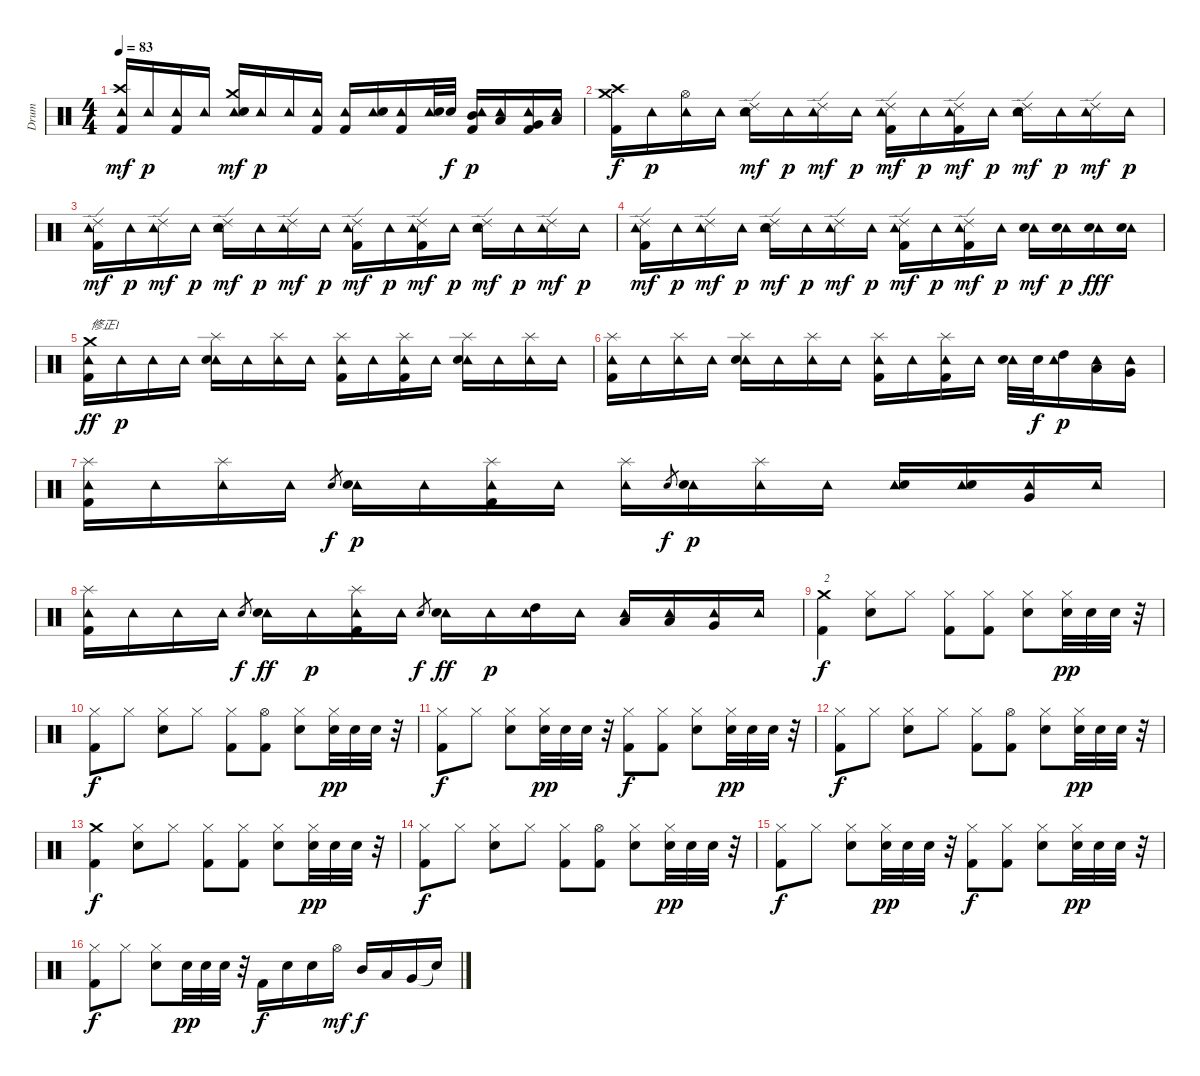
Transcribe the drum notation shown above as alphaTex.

\track ("Drum" "Drum") {instrument percussion}
\staff {score}
\articulation defaults
\ts (4 4)
\tempo 83
\clef neutral
\ks c
("Tambourine (hit)" "Crash high (hit)" "Kick (hit) 2").16{dy mf} "Tambourine (hit)".16{dy p} ("Tambourine (hit)" "Kick (hit) 2").16 "Tambourine (hit)".16 ("Tambourine (hit)" "Crash medium (hit)" "Electric Snare (hit)").16{dy mf} "Tambourine (hit)".16{dy p} "Tambourine (hit)".16 ("Tambourine (hit)" "Kick (hit) 2").16 ("Tambourine (hit)" "Kick (hit) 2").16 ("Tambourine (hit)" "Electric Snare (hit)").16 ("Tambourine (hit)" "Kick (hit) 2").16 ("Tambourine (hit)" "Electric Snare (hit)").32 "Electric Snare (hit)".32{dy f} ("Tambourine (hit)" "Mid Tom (hit)" "Kick (hit) 2").16{dy p} ("Tambourine (hit)" "Low Tom (hit)").16 ("Tambourine (hit)" "Very Low Tom (hit)" "Kick (hit) 2").16 ("Tambourine (hit)" "Low Floor Tom (hit)").16 |
("Crash high (hit)" "Crash medium (hit)" "Kick (hit) 2").16{dy f} "Tambourine (hit)".16{dy p} ("Tambourine (hit)" "Hi-Hat (open)").16 "Tambourine (hit)".16 ("Tambourine (hit)" "Ride (edge) 2" "Electric Snare (hit)").16{dy mf} "Tambourine (hit)".16{dy p} ("Tambourine (hit)" "Ride (edge) 2").16{dy mf} "Tambourine (hit)".16{dy p} ("Tambourine (hit)" "Ride (edge) 2" "Kick (hit) 2").16{dy mf} "Tambourine (hit)".16{dy p} ("Tambourine (hit)" "Ride (edge) 2" "Kick (hit) 2").16{dy mf} "Tambourine (hit)".16{dy p} ("Tambourine (hit)" "Ride (edge) 2" "Electric Snare (hit)").16{dy mf} "Tambourine (hit)".16{dy p} ("Tambourine (hit)" "Ride (edge) 2").16{dy mf} "Tambourine (hit)".16{dy p} |
("Tambourine (hit)" "Ride (edge) 2" "Kick (hit) 2").16{dy mf} "Tambourine (hit)".16{dy p} ("Tambourine (hit)" "Ride (edge) 2").16{dy mf} "Tambourine (hit)".16{dy p} ("Tambourine (hit)" "Ride (edge) 2" "Electric Snare (hit)").16{dy mf} "Tambourine (hit)".16{dy p} ("Tambourine (hit)" "Ride (edge) 2").16{dy mf} "Tambourine (hit)".16{dy p} ("Tambourine (hit)" "Ride (edge) 2" "Kick (hit) 2").16{dy mf} "Tambourine (hit)".16{dy p} ("Tambourine (hit)" "Ride (edge) 2" "Kick (hit) 2").16{dy mf} "Tambourine (hit)".16{dy p} ("Tambourine (hit)" "Ride (edge) 2" "Electric Snare (hit)").16{dy mf} "Tambourine (hit)".16{dy p} ("Tambourine (hit)" "Ride (edge) 2").16{dy mf} "Tambourine (hit)".16{dy p} |
("Tambourine (hit)" "Ride (edge) 2" "Kick (hit) 2").16{dy mf} "Tambourine (hit)".16{dy p} ("Tambourine (hit)" "Ride (edge) 2").16{dy mf} "Tambourine (hit)".16{dy p} ("Tambourine (hit)" "Ride (edge) 2" "Electric Snare (hit)").16{dy mf} "Tambourine (hit)".16{dy p} ("Tambourine (hit)" "Ride (edge) 2").16{dy mf} "Tambourine (hit)".16{dy p} ("Tambourine (hit)" "Ride (edge) 2" "Kick (hit) 2").16{dy mf} "Tambourine (hit)".16{dy p} ("Tambourine (hit)" "Ride (edge) 2" "Kick (hit) 2").16{dy mf} "Tambourine (hit)".16{dy p} ("Tambourine (hit)" "Electric Snare (hit)").16{dy mf} ("Tambourine (hit)" "Electric Snare (hit)").16{dy p} ("Tambourine (hit)" "Electric Snare (hit)").16{dy fff} ("Tambourine (hit)" "Electric Snare (hit)").16 |
("Tambourine (hit)" "Crash medium (hit)" "Kick (hit) 2").16{txt "修正1" dy ff} "Tambourine (hit)".16{dy p} "Tambourine (hit)".16 "Tambourine (hit)".16 ("Tambourine (hit)" "Splash (hit)" "Electric Snare (hit)").16 "Tambourine (hit)".16 ("Tambourine (hit)" "Splash (hit)").16 "Tambourine (hit)".16 ("Tambourine (hit)" "Splash (hit)" "Kick (hit) 2").16 "Tambourine (hit)".16 ("Tambourine (hit)" "Splash (hit)" "Kick (hit) 2").16 "Tambourine (hit)".16 ("Tambourine (hit)" "Splash (hit)" "Electric Snare (hit)").16 "Tambourine (hit)".16 ("Tambourine (hit)" "Splash (hit)").16 "Tambourine (hit)".16 |
("Tambourine (hit)" "Splash (hit)" "Kick (hit) 2").16 "Tambourine (hit)".16 ("Tambourine (hit)" "Splash (hit)").16 "Tambourine (hit)".16 ("Tambourine (hit)" "Splash (hit)" "Electric Snare (hit)").16 "Tambourine (hit)".16 ("Tambourine (hit)" "Splash (hit)").16 "Tambourine (hit)".16 ("Tambourine (hit)" "Splash (hit)" "Kick (hit) 2").16 "Tambourine (hit)".16 ("Tambourine (hit)" "Splash (hit)" "Kick (hit) 2").16 "Tambourine (hit)".16 ("Tambourine (hit)" "Electric Snare (hit)").32 "Electric Snare (hit)".32{dy f} ("Tambourine (hit)" "High Tom (hit)").16{dy p} ("Tambourine (hit)" "Low Tom (hit)").16 ("Tambourine (hit)" "Very Low Tom (hit)").16 |
("Tambourine (hit)" "Splash (hit)" "Kick (hit) 2").16 "Tambourine (hit)".16 ("Tambourine (hit)" "Splash (hit)").16 "Tambourine (hit)".16 "Electric Snare (hit)".8{gr dy f} ("Tambourine (hit)" "Electric Snare (hit)").16{dy p} "Tambourine (hit)".16 ("Tambourine (hit)" "Splash (hit)" "Kick (hit) 2").16 "Tambourine (hit)".16 ("Tambourine (hit)" "Splash (hit)").16 "Electric Snare (hit)".8{gr dy f} ("Tambourine (hit)" "Electric Snare (hit)").16{dy p} ("Tambourine (hit)" "Splash (hit)").16 "Tambourine (hit)".16 ("Tambourine (hit)" "Electric Snare (hit)").16 ("Tambourine (hit)" "Electric Snare (hit)").16 ("Tambourine (hit)" "Very Low Tom (hit)").16 "Tambourine (hit)".16 |
("Tambourine (hit)" "Splash (hit)" "Kick (hit) 2").16 "Tambourine (hit)".16 "Tambourine (hit)".16 "Tambourine (hit)".16 "Electric Snare (hit)".8{gr dy f} ("Tambourine (hit)" "Electric Snare (hit)").16{dy ff} "Tambourine (hit)".16{dy p} ("Tambourine (hit)" "Splash (hit)" "Kick (hit) 2").16 "Tambourine (hit)".16 "Electric Snare (hit)".8{gr dy f} ("Tambourine (hit)" "Electric Snare (hit)").16{dy ff} "Tambourine (hit)".16{dy p} ("Tambourine (hit)" "High Tom (hit)").16 "Tambourine (hit)".16 ("Tambourine (hit)" "Low Tom (hit)").16 ("Tambourine (hit)" "Low Tom (hit)").16 ("Tambourine (hit)" "Very Low Tom (hit)").16 "Tambourine (hit)".16 |
("Crash medium (hit)" "Kick (hit) 2").4{txt "2" dy f} ("Hi-Hat (closed)" "Electric Snare (hit)").8 "Hi-Hat (closed)".8 ("Hi-Hat (closed)" "Kick (hit) 2").8 ("Hi-Hat (closed)" "Kick (hit) 2").8 ("Hi-Hat (closed)" "Electric Snare (hit)").8 ("Hi-Hat (closed)" "Snare (hit) 2").32{dy pp} "Snare (hit) 2".32 "Snare (hit) 2".32 r.32 |
("Hi-Hat (closed)" "Kick (hit) 2").8{dy f} "Hi-Hat (closed)".8 ("Hi-Hat (closed)" "Electric Snare (hit)").8 "Hi-Hat (closed)".8 ("Hi-Hat (closed)" "Kick (hit) 2").8 ("Hi-Hat (open)" "Kick (hit) 2").8 ("Hi-Hat (closed)" "Electric Snare (hit)").8 ("Hi-Hat (closed)" "Snare (hit) 2").32{dy pp} "Snare (hit) 2".32 "Snare (hit) 2".32 r.32 |
("Hi-Hat (closed)" "Kick (hit) 2").8{dy f} "Hi-Hat (closed)".8 ("Hi-Hat (closed)" "Electric Snare (hit)").8 ("Hi-Hat (closed)" "Snare (hit) 2").32{dy pp} "Snare (hit) 2".32 "Snare (hit) 2".32 r.32 ("Hi-Hat (closed)" "Kick (hit) 2").8{dy f} ("Hi-Hat (closed)" "Kick (hit) 2").8 ("Hi-Hat (closed)" "Electric Snare (hit)").8 ("Hi-Hat (closed)" "Electric Snare (hit)").32{dy pp} "Electric Snare (hit)".32 "Electric Snare (hit)".32 r.32 |
("Hi-Hat (closed)" "Kick (hit) 2").8{dy f} "Hi-Hat (closed)".8 ("Hi-Hat (closed)" "Electric Snare (hit)").8 "Hi-Hat (closed)".8 ("Hi-Hat (closed)" "Kick (hit) 2").8 ("Hi-Hat (open)" "Kick (hit) 2").8 ("Hi-Hat (closed)" "Electric Snare (hit)").8 ("Hi-Hat (closed)" "Snare (hit) 2").32{dy pp} "Snare (hit) 2".32 "Snare (hit) 2".32 r.32 |
("Crash medium (hit)" "Kick (hit) 2").4{dy f} ("Hi-Hat (closed)" "Electric Snare (hit)").8 "Hi-Hat (closed)".8 ("Hi-Hat (closed)" "Kick (hit) 2").8 ("Hi-Hat (closed)" "Kick (hit) 2").8 ("Hi-Hat (closed)" "Electric Snare (hit)").8 ("Hi-Hat (closed)" "Snare (hit) 2").32{dy pp} "Snare (hit) 2".32 "Snare (hit) 2".32 r.32 |
("Hi-Hat (closed)" "Kick (hit) 2").8{dy f} "Hi-Hat (closed)".8 ("Hi-Hat (closed)" "Electric Snare (hit)").8 "Hi-Hat (closed)".8 ("Hi-Hat (closed)" "Kick (hit) 2").8 ("Hi-Hat (open)" "Kick (hit) 2").8 ("Hi-Hat (closed)" "Electric Snare (hit)").8 ("Hi-Hat (closed)" "Snare (hit) 2").32{dy pp} "Snare (hit) 2".32 "Snare (hit) 2".32 r.32 |
("Hi-Hat (closed)" "Kick (hit) 2").8{dy f} "Hi-Hat (closed)".8 ("Hi-Hat (closed)" "Electric Snare (hit)").8 ("Hi-Hat (closed)" "Snare (hit) 2").32{dy pp} "Snare (hit) 2".32 "Snare (hit) 2".32 r.32 ("Hi-Hat (closed)" "Kick (hit) 2").8{dy f} ("Hi-Hat (closed)" "Kick (hit) 2").8 ("Hi-Hat (closed)" "Electric Snare (hit)").8 ("Hi-Hat (closed)" "Snare (hit) 2").32{dy pp} "Snare (hit) 2".32 "Snare (hit) 2".32 r.32 |
("Hi-Hat (closed)" "Kick (hit) 2").8{dy f} "Hi-Hat (closed)".8 ("Hi-Hat (closed)" "Electric Snare (hit)").8 "Snare (hit) 2".32{dy pp} "Snare (hit) 2".32 "Snare (hit) 2".32 r.32 "Kick (hit) 2".16{dy f} "Electric Snare (hit)".16 "Electric Snare (hit)".16 "Hi-Hat (open)".16{dy mf} "Mid Tom (hit)".16{dy f} "Low Tom (hit)".16 "Very Low Tom (hit)".16 "Snare (hit)"{t}.16
